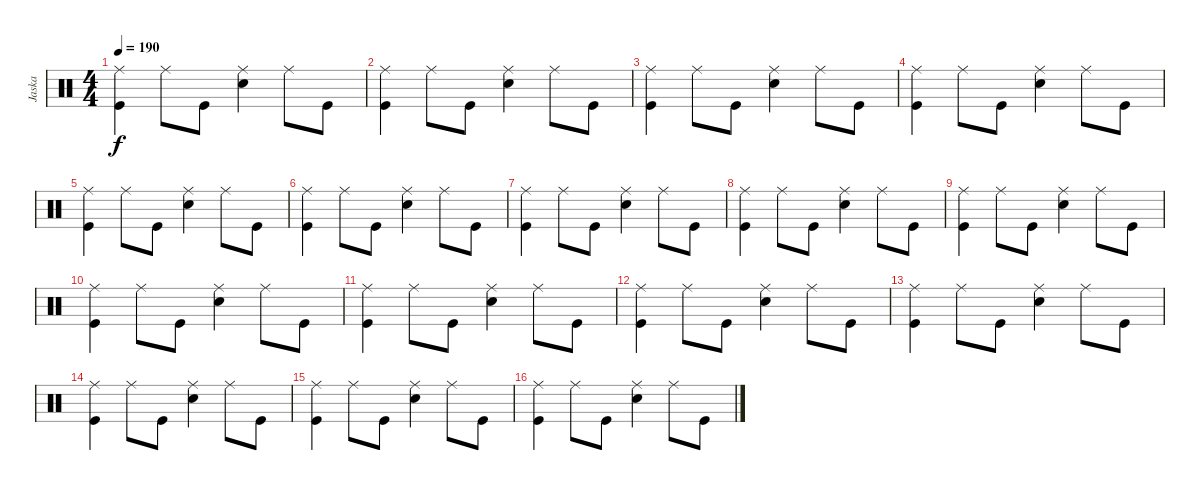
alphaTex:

\track ("Jaska" "Jaska") {instrument percussion}
\staff {score}
\articulation defaults
\ts (4 4)
\tempo 190
\clef neutral
\ks c
("Ride (middle)" "Kick (hit)").4{dy f} "Ride (middle)".8 "Kick (hit)".8 ("Ride (middle)" "Snare (hit) 2").4 "Ride (middle)".8 "Kick (hit)".8 |
("Ride (middle)" "Kick (hit)").4 "Ride (middle)".8 "Kick (hit)".8 ("Ride (middle)" "Snare (hit) 2").4 "Ride (middle)".8 "Kick (hit)".8 |
("Ride (middle)" "Kick (hit)").4 "Ride (middle)".8 "Kick (hit)".8 ("Ride (middle)" "Snare (hit) 2").4 "Ride (middle)".8 "Kick (hit)".8 |
("Ride (middle)" "Kick (hit)").4 "Ride (middle)".8 "Kick (hit)".8 ("Ride (middle)" "Snare (hit) 2").4 "Ride (middle)".8 "Kick (hit)".8 |
("Ride (middle)" "Kick (hit)").4 "Ride (middle)".8 "Kick (hit)".8 ("Ride (middle)" "Snare (hit) 2").4 "Ride (middle)".8 "Kick (hit)".8 |
("Ride (middle)" "Kick (hit)").4 "Ride (middle)".8 "Kick (hit)".8 ("Ride (middle)" "Snare (hit) 2").4 "Ride (middle)".8 "Kick (hit)".8 |
("Ride (middle)" "Kick (hit)").4 "Ride (middle)".8 "Kick (hit)".8 ("Ride (middle)" "Snare (hit) 2").4 "Ride (middle)".8 "Kick (hit)".8 |
("Ride (middle)" "Kick (hit)").4 "Ride (middle)".8 "Kick (hit)".8 ("Ride (middle)" "Snare (hit) 2").4 "Ride (middle)".8 "Kick (hit)".8 |
("Ride (middle)" "Kick (hit)").4 "Ride (middle)".8 "Kick (hit)".8 ("Ride (middle)" "Snare (hit) 2").4 "Ride (middle)".8 "Kick (hit)".8 |
("Ride (middle)" "Kick (hit)").4 "Ride (middle)".8 "Kick (hit)".8 ("Ride (middle)" "Snare (hit) 2").4 "Ride (middle)".8 "Kick (hit)".8 |
("Ride (middle)" "Kick (hit)").4 "Ride (middle)".8 "Kick (hit)".8 ("Ride (middle)" "Snare (hit) 2").4 "Ride (middle)".8 "Kick (hit)".8 |
("Ride (middle)" "Kick (hit)").4 "Ride (middle)".8 "Kick (hit)".8 ("Ride (middle)" "Snare (hit) 2").4 "Ride (middle)".8 "Kick (hit)".8 |
("Ride (middle)" "Kick (hit)").4 "Ride (middle)".8 "Kick (hit)".8 ("Ride (middle)" "Snare (hit) 2").4 "Ride (middle)".8 "Kick (hit)".8 |
("Ride (middle)" "Kick (hit)").4 "Ride (middle)".8 "Kick (hit)".8 ("Ride (middle)" "Snare (hit) 2").4 "Ride (middle)".8 "Kick (hit)".8 |
("Ride (middle)" "Kick (hit)").4 "Ride (middle)".8 "Kick (hit)".8 ("Ride (middle)" "Snare (hit) 2").4 "Ride (middle)".8 "Kick (hit)".8 |
("Ride (middle)" "Kick (hit)").4 "Ride (middle)".8 "Kick (hit)".8 ("Ride (middle)" "Snare (hit) 2").4 "Ride (middle)".8 "Kick (hit)".8
